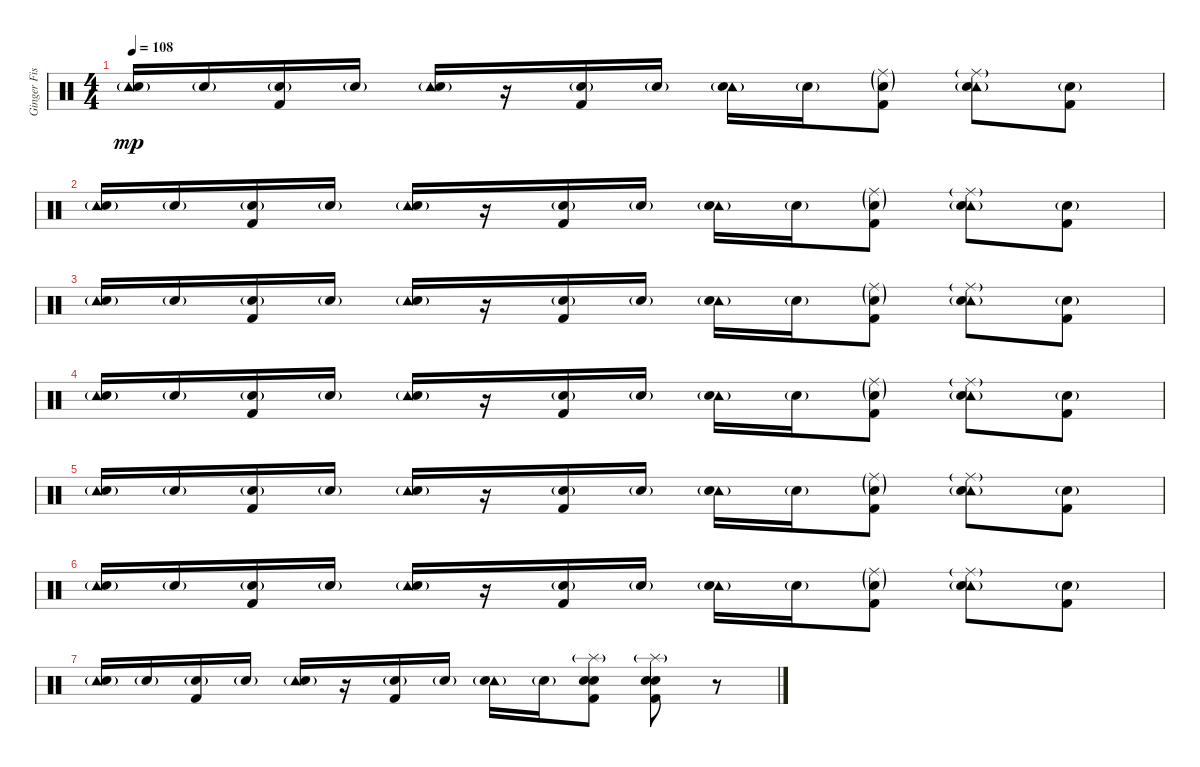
\track ("Ginger Fish" "Ginger Fis") {instrument percussion}
\staff {score}
\articulation defaults
\ts (4 4)
\tempo 108
\clef neutral
\ks c
("Tambourine (hit)" "Electric Snare (hit)"{g}).16{dy mp} "Electric Snare (hit)"{g}.16 ("Electric Snare (hit)"{g} "Kick (hit) 2").16 "Electric Snare (hit)"{g}.16 ("Tambourine (hit)" "Electric Snare (hit)"{g}).16 r.16 ("Electric Snare (hit)"{g} "Kick (hit) 2").16 "Electric Snare (hit)"{g}.16 ("Tambourine (hit)" "Electric Snare (hit)"{g}).16 "Electric Snare (hit)"{g}.16 ("Ride (middle)"{g} "Electric Snare (hit)"{g} "Kick (hit) 2").8 ("Tambourine (hit)" "Ride (middle)"{g} "Electric Snare (hit)"{g}).8 ("Snare (hit) 2"{g} "Kick (hit) 2").8 |
("Tambourine (hit)" "Electric Snare (hit)"{g}).16 "Electric Snare (hit)"{g}.16 ("Electric Snare (hit)"{g} "Kick (hit) 2").16 "Electric Snare (hit)"{g}.16 ("Tambourine (hit)" "Electric Snare (hit)"{g}).16 r.16 ("Electric Snare (hit)"{g} "Kick (hit) 2").16 "Electric Snare (hit)"{g}.16 ("Tambourine (hit)" "Electric Snare (hit)"{g}).16 "Electric Snare (hit)"{g}.16 ("Ride (middle)"{g} "Electric Snare (hit)"{g} "Kick (hit) 2").8 ("Tambourine (hit)" "Ride (middle)"{g} "Electric Snare (hit)"{g}).8 ("Snare (hit) 2"{g} "Kick (hit) 2").8 |
("Tambourine (hit)" "Electric Snare (hit)"{g}).16 "Electric Snare (hit)"{g}.16 ("Electric Snare (hit)"{g} "Kick (hit) 2").16 "Electric Snare (hit)"{g}.16 ("Tambourine (hit)" "Electric Snare (hit)"{g}).16 r.16 ("Electric Snare (hit)"{g} "Kick (hit) 2").16 "Electric Snare (hit)"{g}.16 ("Tambourine (hit)" "Electric Snare (hit)"{g}).16 "Electric Snare (hit)"{g}.16 ("Ride (middle)"{g} "Electric Snare (hit)"{g} "Kick (hit) 2").8 ("Tambourine (hit)" "Ride (middle)"{g} "Electric Snare (hit)"{g}).8 ("Snare (hit) 2"{g} "Kick (hit) 2").8 |
("Tambourine (hit)" "Electric Snare (hit)"{g}).16 "Electric Snare (hit)"{g}.16 ("Electric Snare (hit)"{g} "Kick (hit) 2").16 "Electric Snare (hit)"{g}.16 ("Tambourine (hit)" "Electric Snare (hit)"{g}).16 r.16 ("Electric Snare (hit)"{g} "Kick (hit) 2").16 "Electric Snare (hit)"{g}.16 ("Tambourine (hit)" "Electric Snare (hit)"{g}).16 "Electric Snare (hit)"{g}.16 ("Ride (middle)"{g} "Electric Snare (hit)"{g} "Kick (hit) 2").8 ("Tambourine (hit)" "Ride (middle)"{g} "Electric Snare (hit)"{g}).8 ("Snare (hit) 2"{g} "Kick (hit) 2").8 |
("Tambourine (hit)" "Electric Snare (hit)"{g}).16 "Electric Snare (hit)"{g}.16 ("Electric Snare (hit)"{g} "Kick (hit) 2").16 "Electric Snare (hit)"{g}.16 ("Tambourine (hit)" "Electric Snare (hit)"{g}).16 r.16 ("Electric Snare (hit)"{g} "Kick (hit) 2").16 "Electric Snare (hit)"{g}.16 ("Tambourine (hit)" "Electric Snare (hit)"{g}).16 "Electric Snare (hit)"{g}.16 ("Ride (middle)"{g} "Electric Snare (hit)"{g} "Kick (hit) 2").8 ("Tambourine (hit)" "Ride (middle)"{g} "Electric Snare (hit)"{g}).8 ("Snare (hit) 2"{g} "Kick (hit) 2").8 |
("Tambourine (hit)" "Electric Snare (hit)"{g}).16 "Electric Snare (hit)"{g}.16 ("Electric Snare (hit)"{g} "Kick (hit) 2").16 "Electric Snare (hit)"{g}.16 ("Tambourine (hit)" "Electric Snare (hit)"{g}).16 r.16 ("Electric Snare (hit)"{g} "Kick (hit) 2").16 "Electric Snare (hit)"{g}.16 ("Tambourine (hit)" "Electric Snare (hit)"{g}).16 "Electric Snare (hit)"{g}.16 ("Ride (middle)"{g} "Electric Snare (hit)"{g} "Kick (hit) 2").8 ("Tambourine (hit)" "Ride (middle)"{g} "Electric Snare (hit)"{g}).8 ("Snare (hit) 2"{g} "Kick (hit) 2").8 |
("Tambourine (hit)" "Electric Snare (hit)"{g}).16 "Electric Snare (hit)"{g}.16 ("Electric Snare (hit)"{g} "Kick (hit) 2").16 "Electric Snare (hit)"{g}.16 ("Tambourine (hit)" "Electric Snare (hit)"{g}).16 r.16 ("Electric Snare (hit)"{g} "Kick (hit) 2").16 "Electric Snare (hit)"{g}.16 ("Tambourine (hit)" "Electric Snare (hit)"{g}).16 "Electric Snare (hit)"{g}.16 ("Splash (hit)"{g} "Electric Snare (hit)" "Snare (hit) 2" "Kick (hit) 2").8 ("Splash (hit)"{g} "Electric Snare (hit)" "Snare (hit) 2" "Kick (hit) 2").8 r.8
